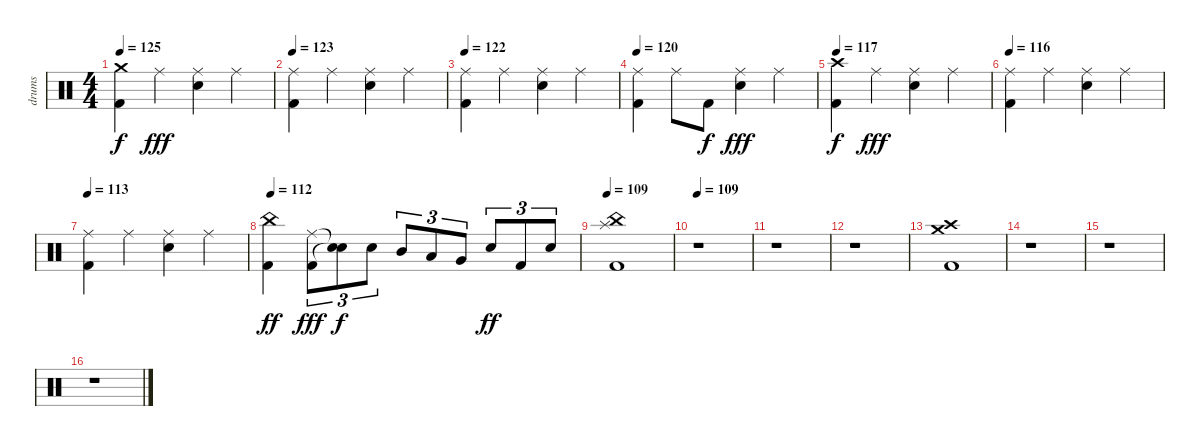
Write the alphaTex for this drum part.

\track ("drums" "drums") {instrument percussion}
\staff {score}
\articulation defaults
\ts (4 4)
\tempo 125
\clef neutral
\ks c
("Kick (hit) 2" "Crash medium (hit)").4{dy f} "Ride (middle)".4{dy fff} ("Ride (middle)" "Snare (hit) 2").4 "Ride (middle)".4 |
\tempo 123
("Kick (hit) 2" "Ride (middle)").4 "Ride (middle)".4 ("Snare (hit) 2" "Ride (middle)").4 "Ride (middle)".4 |
\tempo 122
("Ride (middle)" "Kick (hit) 2").4 "Ride (middle)".4 ("Ride (middle)" "Snare (hit) 2").4 "Ride (middle)".4 |
\tempo 120
("Ride (middle)" "Kick (hit) 2").4 "Ride (middle)".8 "Kick (hit) 2".8{dy f} ("Ride (middle)" "Snare (hit) 2").4{dy fff} "Ride (middle)".4 |
\tempo 117
("Kick (hit) 2" "Crash high (hit)").4{dy f} "Ride (middle)".4{dy fff} ("Ride (middle)" "Snare (hit) 2").4 "Ride (middle)".4 |
\tempo 116
("Kick (hit) 2" "Ride (middle)").4 "Ride (middle)".4 ("Snare (hit) 2" "Ride (middle)").4 "Ride (middle)".4 |
\tempo 113
("Ride (middle)" "Kick (hit) 2").4 "Ride (middle)".4 ("Ride (middle)" "Snare (hit) 2").4 "Ride (middle)".4 |
\tempo 112
("China (hit)" "Kick (hit) 2").4{dy ff} ("Kick (hit) 2" "Ride (middle)").8{tu (3 2) dy fff} ("Snare (hit)"{t} "Snare (hit)"{t}).8{tu (3 2) dy f} "Snare (hit) 2".8{tu (3 2)} "Mid Tom (hit)".8{tu (3 2)} "Low Tom (hit)".8{tu (3 2)} "Very Low Tom (hit)".8{tu (3 2)} "Snare (hit) 2".8{tu (3 2) dy ff} "Kick (hit) 2".8{tu (3 2)} "Snare (hit) 2".8{tu (3 2)} |
\tempo 109
("China (hit)" "Splash (hit)" "Kick (hit) 2").1 |
\tempo 109
r.1 |
r.1 |
r.1 |
("Crash medium (hit)" "Crash high (hit)" "Kick (hit) 2").1 |
r.1 |
r.1 |
r.1
